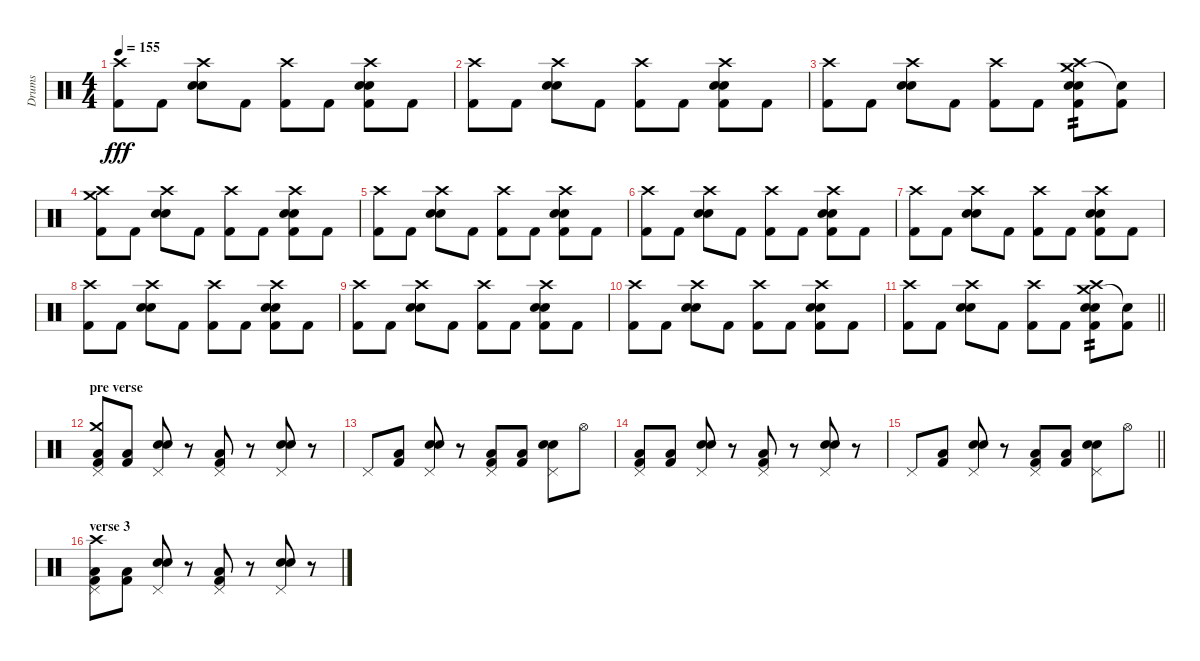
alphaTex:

\track ("Drums" "Drums") {instrument percussion}
\staff {score}
\articulation defaults
\ts (4 4)
\tempo 155
\clef neutral
\ks c
("Crash high (hit)" "Kick (hit) 2").8{dy fff} "Kick (hit) 2".8 ("Crash high (hit)" "Electric Snare (hit)" "Snare (hit) 2").8 "Kick (hit) 2".8 ("Crash high (hit)" "Kick (hit) 2").8 "Kick (hit) 2".8 ("Crash high (hit)" "Electric Snare (hit)" "Snare (hit) 2" "Kick (hit) 2").8 "Kick (hit) 2".8 |
("Crash high (hit)" "Kick (hit) 2").8 "Kick (hit) 2".8 ("Crash high (hit)" "Electric Snare (hit)" "Snare (hit) 2").8 "Kick (hit) 2".8 ("Crash high (hit)" "Kick (hit) 2").8 "Kick (hit) 2".8 ("Crash high (hit)" "Electric Snare (hit)" "Snare (hit) 2" "Kick (hit) 2").8 "Kick (hit) 2".8 |
("Crash high (hit)" "Kick (hit) 2").8 "Kick (hit) 2".8 ("Crash high (hit)" "Electric Snare (hit)" "Snare (hit) 2").8 "Kick (hit) 2".8 ("Crash high (hit)" "Kick (hit) 2").8 "Kick (hit) 2".8 ("Crash medium (hit)" "Crash high (hit)" "Electric Snare (hit)" "Snare (hit) 2" "Kick (hit) 2").8{tp 2} ("Snare (hit)"{t} "Kick (hit) 2").8 |
("Crash medium (hit)" "Crash high (hit)" "Kick (hit) 2").8 "Kick (hit) 2".8 ("Crash high (hit)" "Electric Snare (hit)" "Snare (hit) 2").8 "Kick (hit) 2".8 ("Crash high (hit)" "Kick (hit) 2").8 "Kick (hit) 2".8 ("Crash high (hit)" "Electric Snare (hit)" "Snare (hit) 2" "Kick (hit) 2").8 "Kick (hit) 2".8 |
("Crash high (hit)" "Kick (hit) 2").8 "Kick (hit) 2".8 ("Crash high (hit)" "Electric Snare (hit)" "Snare (hit) 2").8 "Kick (hit) 2".8 ("Crash high (hit)" "Kick (hit) 2").8 "Kick (hit) 2".8 ("Crash high (hit)" "Electric Snare (hit)" "Snare (hit) 2" "Kick (hit) 2").8 "Kick (hit) 2".8 |
("Crash high (hit)" "Kick (hit) 2").8 "Kick (hit) 2".8 ("Crash high (hit)" "Electric Snare (hit)" "Snare (hit) 2").8 "Kick (hit) 2".8 ("Crash high (hit)" "Kick (hit) 2").8 "Kick (hit) 2".8 ("Crash high (hit)" "Electric Snare (hit)" "Snare (hit) 2" "Kick (hit) 2").8 "Kick (hit) 2".8 |
("Crash high (hit)" "Kick (hit) 2").8 "Kick (hit) 2".8 ("Crash high (hit)" "Electric Snare (hit)" "Snare (hit) 2").8 "Kick (hit) 2".8 ("Crash high (hit)" "Kick (hit) 2").8 "Kick (hit) 2".8 ("Crash high (hit)" "Electric Snare (hit)" "Snare (hit) 2" "Kick (hit) 2").8 "Kick (hit) 2".8 |
("Crash high (hit)" "Kick (hit) 2").8 "Kick (hit) 2".8 ("Crash high (hit)" "Electric Snare (hit)" "Snare (hit) 2").8 "Kick (hit) 2".8 ("Crash high (hit)" "Kick (hit) 2").8 "Kick (hit) 2".8 ("Crash high (hit)" "Electric Snare (hit)" "Snare (hit) 2" "Kick (hit) 2").8 "Kick (hit) 2".8 |
("Crash high (hit)" "Kick (hit) 2").8 "Kick (hit) 2".8 ("Crash high (hit)" "Electric Snare (hit)" "Snare (hit) 2").8 "Kick (hit) 2".8 ("Crash high (hit)" "Kick (hit) 2").8 "Kick (hit) 2".8 ("Crash high (hit)" "Electric Snare (hit)" "Snare (hit) 2" "Kick (hit) 2").8 "Kick (hit) 2".8 |
("Crash high (hit)" "Kick (hit) 2").8 "Kick (hit) 2".8 ("Crash high (hit)" "Electric Snare (hit)" "Snare (hit) 2").8 "Kick (hit) 2".8 ("Crash high (hit)" "Kick (hit) 2").8 "Kick (hit) 2".8 ("Crash high (hit)" "Electric Snare (hit)" "Snare (hit) 2" "Kick (hit) 2").8 "Kick (hit) 2".8 |
\barLineRight lightlight
("Crash high (hit)" "Kick (hit) 2").8 "Kick (hit) 2".8 ("Crash high (hit)" "Electric Snare (hit)" "Snare (hit) 2").8 "Kick (hit) 2".8 ("Crash high (hit)" "Kick (hit) 2").8 "Kick (hit) 2".8 ("Crash medium (hit)" "Crash high (hit)" "Electric Snare (hit)" "Snare (hit) 2" "Kick (hit) 2").8{tp 2} ("Snare (hit)"{t} "Kick (hit) 2").8 |
\section ("" "pre verse")
("Crash medium (hit)" "Pedal Hi-Hat (hit)" "Low Tom (hit)" "Kick (hit) 2").8 ("Low Tom (hit)" "Kick (hit) 2").8 ("Pedal Hi-Hat (hit)" "Electric Snare (hit)" "Snare (hit) 2").8 r.8 ("Pedal Hi-Hat (hit)" "Low Tom (hit)" "Kick (hit) 2").8 r.8 ("Pedal Hi-Hat (hit)" "Electric Snare (hit)" "Snare (hit) 2").8 r.8 |
"Pedal Hi-Hat (hit)".8 ("Low Tom (hit)" "Kick (hit) 2").8 ("Pedal Hi-Hat (hit)" "Electric Snare (hit)" "Snare (hit) 2").8 r.8 ("Pedal Hi-Hat (hit)" "Low Tom (hit)" "Kick (hit) 2").8 ("Low Tom (hit)" "Kick (hit) 2").8 ("Pedal Hi-Hat (hit)" "Electric Snare (hit)" "Snare (hit) 2").8 "Hi-Hat (open)".8 |
("Pedal Hi-Hat (hit)" "Low Tom (hit)" "Kick (hit) 2").8 ("Low Tom (hit)" "Kick (hit) 2").8 ("Pedal Hi-Hat (hit)" "Electric Snare (hit)" "Snare (hit) 2").8 r.8 ("Pedal Hi-Hat (hit)" "Low Tom (hit)" "Kick (hit) 2").8 r.8 ("Pedal Hi-Hat (hit)" "Electric Snare (hit)" "Snare (hit) 2").8 r.8 |
\barLineRight lightlight "Pedal Hi-Hat (hit)".8
("Low Tom (hit)" "Kick (hit) 2").8 ("Pedal Hi-Hat (hit)" "Electric Snare (hit)" "Snare (hit) 2").8 r.8 ("Pedal Hi-Hat (hit)" "Low Tom (hit)" "Kick (hit) 2").8 ("Low Tom (hit)" "Kick (hit) 2").8 ("Pedal Hi-Hat (hit)" "Electric Snare (hit)" "Snare (hit) 2").8 "Hi-Hat (open)".8 |
\section ("" "verse 3")
("Crash high (hit)" "Pedal Hi-Hat (hit)" "Low Tom (hit)" "Kick (hit) 2").8 ("Low Tom (hit)" "Kick (hit) 2").8 ("Pedal Hi-Hat (hit)" "Electric Snare (hit)" "Snare (hit) 2").8 r.8 ("Pedal Hi-Hat (hit)" "Low Tom (hit)" "Kick (hit) 2").8 r.8 ("Pedal Hi-Hat (hit)" "Electric Snare (hit)" "Snare (hit) 2").8 r.8
